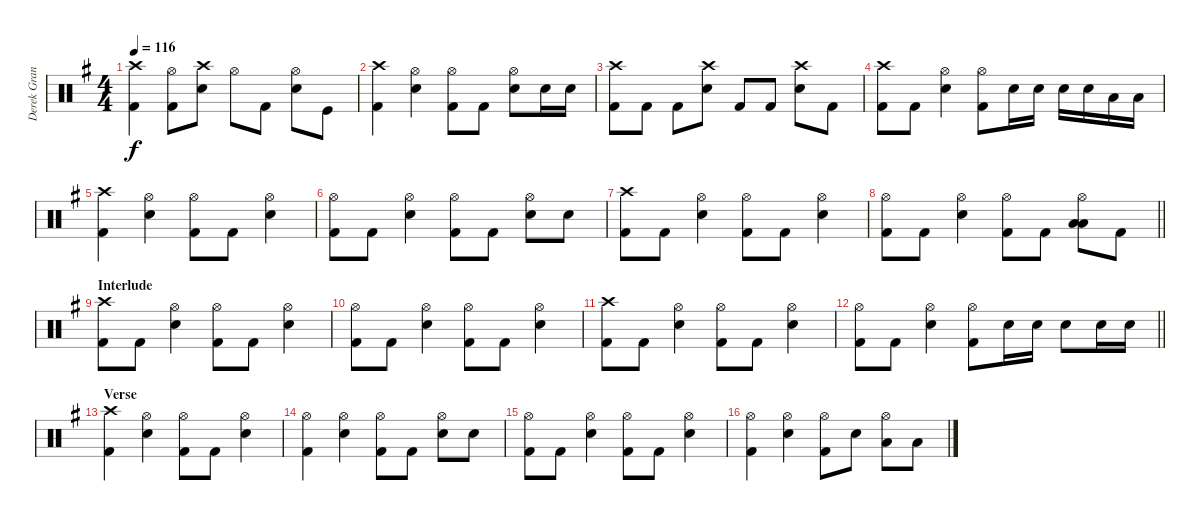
\track ("Derek Grant - Drums" "Derek Gran") {instrument percussion}
\staff {score}
\articulation defaults
\ts (4 4)
\tempo 116
\clef neutral
\ks g
("Kick (hit) 2" "Crash high (hit)").4{dy f} ("Kick (hit) 2" "Hi-Hat (open)").8 ("Snare (hit) 2" "Crash high (hit)").8 "Hi-Hat (open)".8 "Kick (hit) 2".8 ("Snare (hit) 2" "Hi-Hat (open)").8 "Kick (hit)".8 |
("Crash high (hit)" "Kick (hit) 2").4 ("Snare (hit) 2" "Hi-Hat (open)").4 ("Kick (hit) 2" "Hi-Hat (open)").8 "Kick (hit) 2".8 ("Snare (hit) 2" "Hi-Hat (open)").8 "Snare (hit) 2".16 "Snare (hit) 2".16 |
("Kick (hit) 2" "Crash high (hit)").8 "Kick (hit) 2".8 "Kick (hit) 2".8 ("Snare (hit) 2" "Crash high (hit)").8 "Kick (hit) 2".8 "Kick (hit) 2".8 ("Snare (hit) 2" "Crash high (hit)").8 "Kick (hit) 2".8 |
("Kick (hit) 2" "Crash high (hit)").8 "Kick (hit) 2".8 ("Snare (hit) 2" "Hi-Hat (open)").4 ("Kick (hit) 2" "Hi-Hat (open)").8 "Snare (hit) 2".16 "Snare (hit) 2".16 "Snare (hit) 2".16 "Snare (hit) 2".16 "Low Tom (hit)".16 "Low Tom (hit)".16 |
("Crash high (hit)" "Kick (hit) 2").4 ("Snare (hit) 2" "Hi-Hat (open)").4 ("Kick (hit) 2" "Hi-Hat (open)").8 "Kick (hit) 2".8 ("Snare (hit) 2" "Hi-Hat (open)").4 |
("Kick (hit) 2" "Hi-Hat (open)").8 "Kick (hit) 2".8 ("Snare (hit) 2" "Hi-Hat (open)").4 ("Kick (hit) 2" "Hi-Hat (open)").8 "Kick (hit) 2".8 ("Snare (hit) 2" "Hi-Hat (open)").8 "Snare (hit) 2".8 |
("Crash high (hit)" "Kick (hit) 2").8 "Kick (hit) 2".8 ("Snare (hit) 2" "Hi-Hat (open)").4 ("Kick (hit) 2" "Hi-Hat (open)").8 "Kick (hit) 2".8 ("Snare (hit) 2" "Hi-Hat (open)").4 |
\barLineRight lightlight
("Kick (hit) 2" "Hi-Hat (open)").8 "Kick (hit) 2".8 ("Snare (hit) 2" "Hi-Hat (open)").4 ("Kick (hit) 2" "Hi-Hat (open)").8 "Kick (hit) 2".8 ("Low Tom (hit)" "Hi-Hat (open)" "Low Floor Tom (hit)").8 "Kick (hit) 2".8 |
\section ("" "Interlude")
("Crash high (hit)" "Kick (hit) 2").8 "Kick (hit) 2".8 ("Hi-Hat (open)" "Snare (hit) 2").4 ("Hi-Hat (open)" "Kick (hit) 2").8 "Kick (hit) 2".8 ("Hi-Hat (open)" "Snare (hit) 2").4 |
("Hi-Hat (open)" "Kick (hit) 2").8 "Kick (hit) 2".8 ("Hi-Hat (open)" "Snare (hit) 2").4 ("Hi-Hat (open)" "Kick (hit) 2").8 "Kick (hit) 2".8 ("Hi-Hat (open)" "Snare (hit) 2").4 |
("Crash high (hit)" "Kick (hit) 2").8 "Kick (hit) 2".8 ("Hi-Hat (open)" "Snare (hit) 2").4 ("Hi-Hat (open)" "Kick (hit) 2").8 "Kick (hit) 2".8 ("Hi-Hat (open)" "Snare (hit) 2").4 |
\barLineRight lightlight
("Hi-Hat (open)" "Kick (hit) 2").8 "Kick (hit) 2".8 ("Hi-Hat (open)" "Snare (hit) 2").4 ("Hi-Hat (open)" "Kick (hit) 2").8 "Snare (hit) 2".16 "Snare (hit) 2".16 "Snare (hit) 2".8 "Snare (hit) 2".16 "Snare (hit) 2".16 |
\section ("" "Verse")
("Crash high (hit)" "Kick (hit) 2").4 ("Hi-Hat (open)" "Snare (hit) 2").4 ("Hi-Hat (open)" "Kick (hit) 2").8 "Kick (hit) 2".8 ("Hi-Hat (open)" "Snare (hit) 2").4 |
("Hi-Hat (open)" "Kick (hit) 2").4 ("Hi-Hat (open)" "Snare (hit) 2").4 ("Hi-Hat (open)" "Kick (hit) 2").8 "Kick (hit) 2".8 ("Hi-Hat (open)" "Snare (hit) 2").8 "Snare (hit) 2".8 |
("Hi-Hat (open)" "Kick (hit) 2").8 "Kick (hit) 2".8 ("Hi-Hat (open)" "Snare (hit) 2").4 ("Hi-Hat (open)" "Kick (hit) 2").8 "Kick (hit) 2".8 ("Hi-Hat (open)" "Snare (hit) 2").4 |
("Hi-Hat (open)" "Kick (hit) 2").4 ("Hi-Hat (open)" "Snare (hit) 2").4 ("Hi-Hat (open)" "Kick (hit) 2").8 "Snare (hit) 2".8 ("Low Tom (hit)" "Hi-Hat (open)").8 "Low Floor Tom (hit)".8
